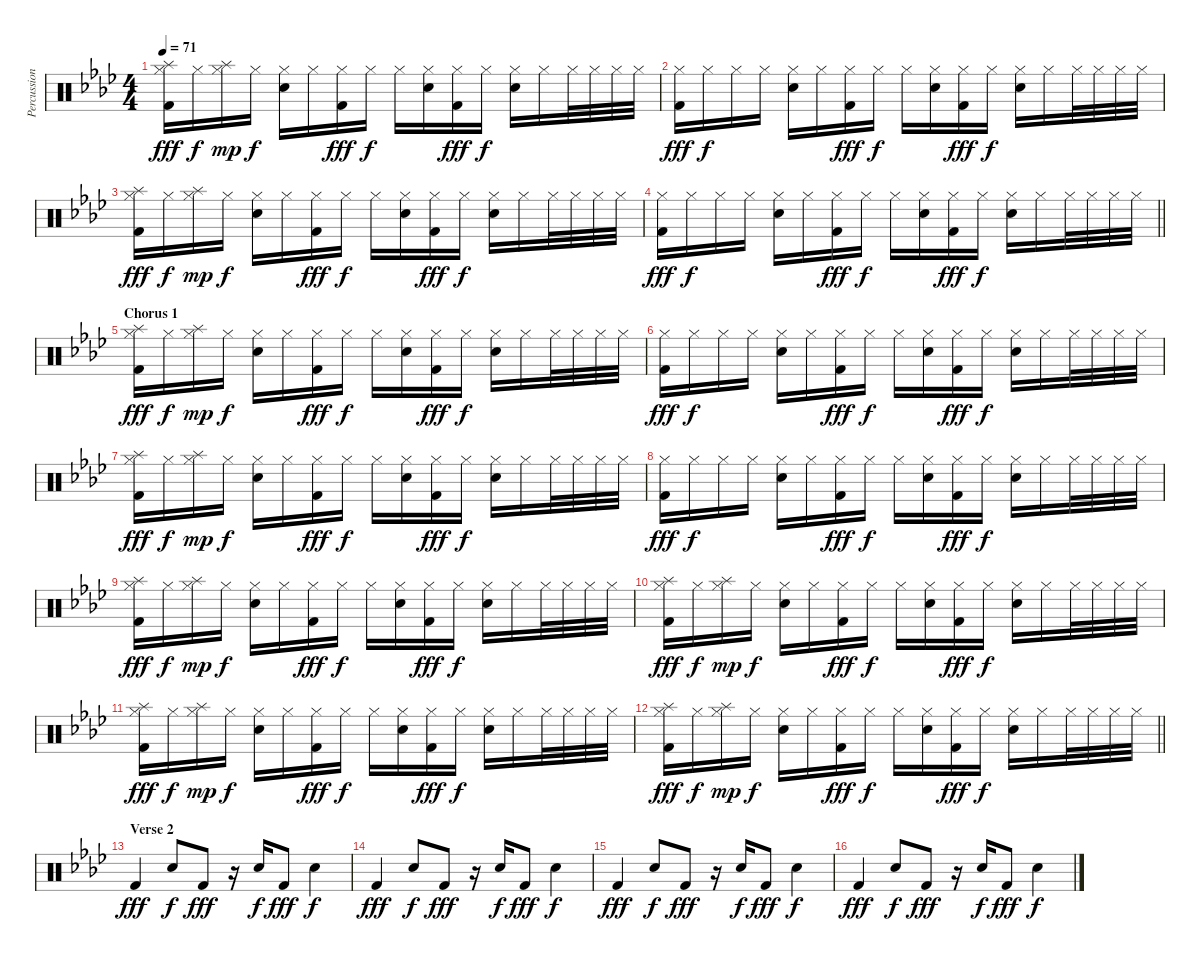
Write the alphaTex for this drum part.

\track ("Percussion" "Percussion") {instrument percussion}
\staff {score}
\articulation defaults
\ts (4 4)
\tempo 71
\clef neutral
\ks ab
("Splash (hit)" "Hi-Hat (closed)" "Kick (hit) 2").16{dy fff} "Hi-Hat (closed)".16{dy f} ("Splash (hit)" "Hi-Hat (closed)").16{dy mp} "Hi-Hat (closed)".16{dy f} ("Hi-Hat (closed)" "Snare (hit) 2").16 "Hi-Hat (closed)".16 ("Hi-Hat (closed)" "Kick (hit) 2").16{dy fff} "Hi-Hat (closed)".16{dy f} "Hi-Hat (closed)".16 ("Hi-Hat (closed)" "Snare (hit) 2").16 ("Hi-Hat (closed)" "Kick (hit) 2").16{dy fff} "Hi-Hat (closed)".16{dy f} ("Hi-Hat (closed)" "Snare (hit) 2").16 "Hi-Hat (closed)".16 "Hi-Hat (closed)".32 "Hi-Hat (closed)".32 "Hi-Hat (closed)".32 "Hi-Hat (closed)".32 |
("Hi-Hat (closed)" "Kick (hit) 2").16{dy fff} "Hi-Hat (closed)".16{dy f} "Hi-Hat (closed)".16 "Hi-Hat (closed)".16 ("Hi-Hat (closed)" "Snare (hit) 2").16 "Hi-Hat (closed)".16 ("Hi-Hat (closed)" "Kick (hit) 2").16{dy fff} "Hi-Hat (closed)".16{dy f} "Hi-Hat (closed)".16 ("Hi-Hat (closed)" "Snare (hit) 2").16 ("Hi-Hat (closed)" "Kick (hit) 2").16{dy fff} "Hi-Hat (closed)".16{dy f} ("Hi-Hat (closed)" "Snare (hit) 2").16 "Hi-Hat (closed)".16 "Hi-Hat (closed)".32 "Hi-Hat (closed)".32 "Hi-Hat (closed)".32 "Hi-Hat (closed)".32 |
("Splash (hit)" "Hi-Hat (closed)" "Kick (hit) 2").16{dy fff} "Hi-Hat (closed)".16{dy f} ("Splash (hit)" "Hi-Hat (closed)").16{dy mp} "Hi-Hat (closed)".16{dy f} ("Hi-Hat (closed)" "Snare (hit) 2").16 "Hi-Hat (closed)".16 ("Hi-Hat (closed)" "Kick (hit) 2").16{dy fff} "Hi-Hat (closed)".16{dy f} "Hi-Hat (closed)".16 ("Hi-Hat (closed)" "Snare (hit) 2").16 ("Hi-Hat (closed)" "Kick (hit) 2").16{dy fff} "Hi-Hat (closed)".16{dy f} ("Hi-Hat (closed)" "Snare (hit) 2").16 "Hi-Hat (closed)".16 "Hi-Hat (closed)".32 "Hi-Hat (closed)".32 "Hi-Hat (closed)".32 "Hi-Hat (closed)".32 |
\barLineRight lightlight
("Hi-Hat (closed)" "Kick (hit) 2").16{dy fff} "Hi-Hat (closed)".16{dy f} "Hi-Hat (closed)".16 "Hi-Hat (closed)".16 ("Hi-Hat (closed)" "Snare (hit) 2").16 "Hi-Hat (closed)".16 ("Hi-Hat (closed)" "Kick (hit) 2").16{dy fff} "Hi-Hat (closed)".16{dy f} "Hi-Hat (closed)".16 ("Hi-Hat (closed)" "Snare (hit) 2").16 ("Hi-Hat (closed)" "Kick (hit) 2").16{dy fff} "Hi-Hat (closed)".16{dy f} ("Hi-Hat (closed)" "Snare (hit) 2").16 "Hi-Hat (closed)".16 "Hi-Hat (closed)".32 "Hi-Hat (closed)".32 "Hi-Hat (closed)".32 "Hi-Hat (closed)".32 |
\section ("" "Chorus 1")
("Splash (hit)" "Hi-Hat (closed)" "Kick (hit) 2").16{dy fff} "Hi-Hat (closed)".16{dy f} ("Splash (hit)" "Hi-Hat (closed)").16{dy mp} "Hi-Hat (closed)".16{dy f} ("Hi-Hat (closed)" "Snare (hit) 2").16 "Hi-Hat (closed)".16 ("Hi-Hat (closed)" "Kick (hit) 2").16{dy fff} "Hi-Hat (closed)".16{dy f} "Hi-Hat (closed)".16 ("Hi-Hat (closed)" "Snare (hit) 2").16 ("Hi-Hat (closed)" "Kick (hit) 2").16{dy fff} "Hi-Hat (closed)".16{dy f} ("Hi-Hat (closed)" "Snare (hit) 2").16 "Hi-Hat (closed)".16 "Hi-Hat (closed)".32 "Hi-Hat (closed)".32 "Hi-Hat (closed)".32 "Hi-Hat (closed)".32 |
("Hi-Hat (closed)" "Kick (hit) 2").16{dy fff} "Hi-Hat (closed)".16{dy f} "Hi-Hat (closed)".16 "Hi-Hat (closed)".16 ("Hi-Hat (closed)" "Snare (hit) 2").16 "Hi-Hat (closed)".16 ("Hi-Hat (closed)" "Kick (hit) 2").16{dy fff} "Hi-Hat (closed)".16{dy f} "Hi-Hat (closed)".16 ("Hi-Hat (closed)" "Snare (hit) 2").16 ("Hi-Hat (closed)" "Kick (hit) 2").16{dy fff} "Hi-Hat (closed)".16{dy f} ("Hi-Hat (closed)" "Snare (hit) 2").16 "Hi-Hat (closed)".16 "Hi-Hat (closed)".32 "Hi-Hat (closed)".32 "Hi-Hat (closed)".32 "Hi-Hat (closed)".32 |
("Splash (hit)" "Hi-Hat (closed)" "Kick (hit) 2").16{dy fff} "Hi-Hat (closed)".16{dy f} ("Splash (hit)" "Hi-Hat (closed)").16{dy mp} "Hi-Hat (closed)".16{dy f} ("Hi-Hat (closed)" "Snare (hit) 2").16 "Hi-Hat (closed)".16 ("Hi-Hat (closed)" "Kick (hit) 2").16{dy fff} "Hi-Hat (closed)".16{dy f} "Hi-Hat (closed)".16 ("Hi-Hat (closed)" "Snare (hit) 2").16 ("Hi-Hat (closed)" "Kick (hit) 2").16{dy fff} "Hi-Hat (closed)".16{dy f} ("Hi-Hat (closed)" "Snare (hit) 2").16 "Hi-Hat (closed)".16 "Hi-Hat (closed)".32 "Hi-Hat (closed)".32 "Hi-Hat (closed)".32 "Hi-Hat (closed)".32 |
("Hi-Hat (closed)" "Kick (hit) 2").16{dy fff} "Hi-Hat (closed)".16{dy f} "Hi-Hat (closed)".16 "Hi-Hat (closed)".16 ("Hi-Hat (closed)" "Snare (hit) 2").16 "Hi-Hat (closed)".16 ("Hi-Hat (closed)" "Kick (hit) 2").16{dy fff} "Hi-Hat (closed)".16{dy f} "Hi-Hat (closed)".16 ("Hi-Hat (closed)" "Snare (hit) 2").16 ("Hi-Hat (closed)" "Kick (hit) 2").16{dy fff} "Hi-Hat (closed)".16{dy f} ("Hi-Hat (closed)" "Snare (hit) 2").16 "Hi-Hat (closed)".16 "Hi-Hat (closed)".32 "Hi-Hat (closed)".32 "Hi-Hat (closed)".32 "Hi-Hat (closed)".32 |
("Splash (hit)" "Hi-Hat (closed)" "Kick (hit) 2").16{dy fff} "Hi-Hat (closed)".16{dy f} ("Splash (hit)" "Hi-Hat (closed)").16{dy mp} "Hi-Hat (closed)".16{dy f} ("Hi-Hat (closed)" "Snare (hit) 2").16 "Hi-Hat (closed)".16 ("Hi-Hat (closed)" "Kick (hit) 2").16{dy fff} "Hi-Hat (closed)".16{dy f} "Hi-Hat (closed)".16 ("Hi-Hat (closed)" "Snare (hit) 2").16 ("Hi-Hat (closed)" "Kick (hit) 2").16{dy fff} "Hi-Hat (closed)".16{dy f} ("Hi-Hat (closed)" "Snare (hit) 2").16 "Hi-Hat (closed)".16 "Hi-Hat (closed)".32 "Hi-Hat (closed)".32 "Hi-Hat (closed)".32 "Hi-Hat (closed)".32 |
("Splash (hit)" "Hi-Hat (closed)" "Kick (hit) 2").16{dy fff} "Hi-Hat (closed)".16{dy f} ("Splash (hit)" "Hi-Hat (closed)").16{dy mp} "Hi-Hat (closed)".16{dy f} ("Hi-Hat (closed)" "Snare (hit) 2").16 "Hi-Hat (closed)".16 ("Hi-Hat (closed)" "Kick (hit) 2").16{dy fff} "Hi-Hat (closed)".16{dy f} "Hi-Hat (closed)".16 ("Hi-Hat (closed)" "Snare (hit) 2").16 ("Hi-Hat (closed)" "Kick (hit) 2").16{dy fff} "Hi-Hat (closed)".16{dy f} ("Hi-Hat (closed)" "Snare (hit) 2").16 "Hi-Hat (closed)".16 "Hi-Hat (closed)".32 "Hi-Hat (closed)".32 "Hi-Hat (closed)".32 "Hi-Hat (closed)".32 |
("Splash (hit)" "Hi-Hat (closed)" "Kick (hit) 2").16{dy fff} "Hi-Hat (closed)".16{dy f} ("Splash (hit)" "Hi-Hat (closed)").16{dy mp} "Hi-Hat (closed)".16{dy f} ("Hi-Hat (closed)" "Snare (hit) 2").16 "Hi-Hat (closed)".16 ("Hi-Hat (closed)" "Kick (hit) 2").16{dy fff} "Hi-Hat (closed)".16{dy f} "Hi-Hat (closed)".16 ("Hi-Hat (closed)" "Snare (hit) 2").16 ("Hi-Hat (closed)" "Kick (hit) 2").16{dy fff} "Hi-Hat (closed)".16{dy f} ("Hi-Hat (closed)" "Snare (hit) 2").16 "Hi-Hat (closed)".16 "Hi-Hat (closed)".32 "Hi-Hat (closed)".32 "Hi-Hat (closed)".32 "Hi-Hat (closed)".32 |
\barLineRight lightlight
("Splash (hit)" "Hi-Hat (closed)" "Kick (hit) 2").16{dy fff} "Hi-Hat (closed)".16{dy f} ("Splash (hit)" "Hi-Hat (closed)").16{dy mp} "Hi-Hat (closed)".16{dy f} ("Hi-Hat (closed)" "Snare (hit) 2").16 "Hi-Hat (closed)".16 ("Hi-Hat (closed)" "Kick (hit) 2").16{dy fff} "Hi-Hat (closed)".16{dy f} "Hi-Hat (closed)".16 ("Hi-Hat (closed)" "Snare (hit) 2").16 ("Hi-Hat (closed)" "Kick (hit) 2").16{dy fff} "Hi-Hat (closed)".16{dy f} ("Hi-Hat (closed)" "Snare (hit) 2").16 "Hi-Hat (closed)".16 "Hi-Hat (closed)".32 "Hi-Hat (closed)".32 "Hi-Hat (closed)".32 "Hi-Hat (closed)".32 |
\section ("" "Verse 2")
"Kick (hit) 2".4{dy fff} "Snare (hit) 2".8{dy f} "Kick (hit) 2".8{dy fff} r.16 "Snare (hit) 2".16{dy f} "Kick (hit) 2".8{dy fff} "Snare (hit) 2".4{dy f} |
"Kick (hit) 2".4{dy fff} "Snare (hit) 2".8{dy f} "Kick (hit) 2".8{dy fff} r.16 "Snare (hit) 2".16{dy f} "Kick (hit) 2".8{dy fff} "Snare (hit) 2".4{dy f} |
"Kick (hit) 2".4{dy fff} "Snare (hit) 2".8{dy f} "Kick (hit) 2".8{dy fff} r.16 "Snare (hit) 2".16{dy f} "Kick (hit) 2".8{dy fff} "Snare (hit) 2".4{dy f} |
"Kick (hit) 2".4{dy fff} "Snare (hit) 2".8{dy f} "Kick (hit) 2".8{dy fff} r.16 "Snare (hit) 2".16{dy f} "Kick (hit) 2".8{dy fff} "Snare (hit) 2".4{dy f}
